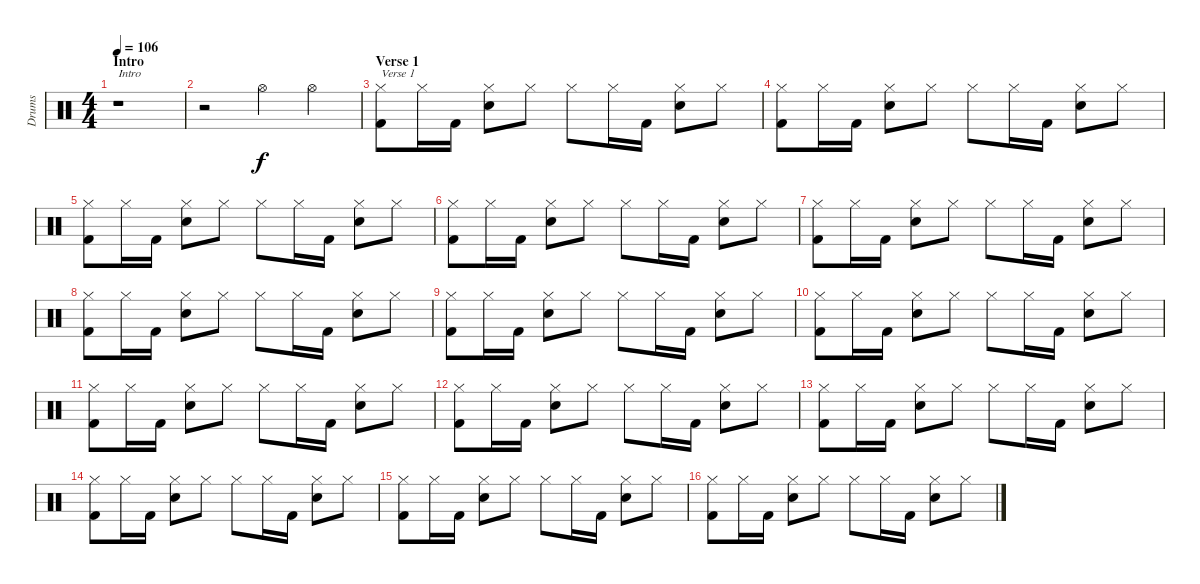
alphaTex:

\track ("Drums" "Drums") {instrument percussion}
\staff {score}
\articulation defaults
\ts (4 4)
\section ("" "Intro")
\tempo 106
\clef neutral
\ks c
r.1{txt "Intro" dy f} |
r.2 "Hi-Hat (open)".4 "Hi-Hat (open)".4 |
\section ("" "Verse 1")
("Hi-Hat (closed)" "Kick (hit) 2").8{txt "Verse 1"} "Hi-Hat (closed)".16 "Kick (hit) 2".16 ("Hi-Hat (closed)" "Electric Snare (hit)").8 "Hi-Hat (closed)".8 "Hi-Hat (closed)".8 "Hi-Hat (closed)".16 "Kick (hit) 2".16 ("Hi-Hat (closed)" "Electric Snare (hit)").8 "Hi-Hat (closed)".8 |
("Hi-Hat (closed)" "Kick (hit) 2").8 "Hi-Hat (closed)".16 "Kick (hit) 2".16 ("Hi-Hat (closed)" "Electric Snare (hit)").8 "Hi-Hat (closed)".8 "Hi-Hat (closed)".8 "Hi-Hat (closed)".16 "Kick (hit) 2".16 ("Hi-Hat (closed)" "Electric Snare (hit)").8 "Hi-Hat (closed)".8 |
("Hi-Hat (closed)" "Kick (hit) 2").8 "Hi-Hat (closed)".16 "Kick (hit) 2".16 ("Hi-Hat (closed)" "Electric Snare (hit)").8 "Hi-Hat (closed)".8 "Hi-Hat (closed)".8 "Hi-Hat (closed)".16 "Kick (hit) 2".16 ("Hi-Hat (closed)" "Electric Snare (hit)").8 "Hi-Hat (closed)".8 |
("Hi-Hat (closed)" "Kick (hit) 2").8 "Hi-Hat (closed)".16 "Kick (hit) 2".16 ("Hi-Hat (closed)" "Electric Snare (hit)").8 "Hi-Hat (closed)".8 "Hi-Hat (closed)".8 "Hi-Hat (closed)".16 "Kick (hit) 2".16 ("Hi-Hat (closed)" "Electric Snare (hit)").8 "Hi-Hat (closed)".8 |
("Hi-Hat (closed)" "Kick (hit) 2").8 "Hi-Hat (closed)".16 "Kick (hit) 2".16 ("Hi-Hat (closed)" "Electric Snare (hit)").8 "Hi-Hat (closed)".8 "Hi-Hat (closed)".8 "Hi-Hat (closed)".16 "Kick (hit) 2".16 ("Hi-Hat (closed)" "Electric Snare (hit)").8 "Hi-Hat (closed)".8 |
("Hi-Hat (closed)" "Kick (hit) 2").8 "Hi-Hat (closed)".16 "Kick (hit) 2".16 ("Hi-Hat (closed)" "Electric Snare (hit)").8 "Hi-Hat (closed)".8 "Hi-Hat (closed)".8 "Hi-Hat (closed)".16 "Kick (hit) 2".16 ("Hi-Hat (closed)" "Electric Snare (hit)").8 "Hi-Hat (closed)".8 |
("Hi-Hat (closed)" "Kick (hit) 2").8 "Hi-Hat (closed)".16 "Kick (hit) 2".16 ("Hi-Hat (closed)" "Electric Snare (hit)").8 "Hi-Hat (closed)".8 "Hi-Hat (closed)".8 "Hi-Hat (closed)".16 "Kick (hit) 2".16 ("Hi-Hat (closed)" "Electric Snare (hit)").8 "Hi-Hat (closed)".8 |
("Hi-Hat (closed)" "Kick (hit) 2").8 "Hi-Hat (closed)".16 "Kick (hit) 2".16 ("Hi-Hat (closed)" "Electric Snare (hit)").8 "Hi-Hat (closed)".8 "Hi-Hat (closed)".8 "Hi-Hat (closed)".16 "Kick (hit) 2".16 ("Hi-Hat (closed)" "Electric Snare (hit)").8 "Hi-Hat (closed)".8 |
("Hi-Hat (closed)" "Kick (hit) 2").8 "Hi-Hat (closed)".16 "Kick (hit) 2".16 ("Hi-Hat (closed)" "Electric Snare (hit)").8 "Hi-Hat (closed)".8 "Hi-Hat (closed)".8 "Hi-Hat (closed)".16 "Kick (hit) 2".16 ("Hi-Hat (closed)" "Electric Snare (hit)").8 "Hi-Hat (closed)".8 |
("Hi-Hat (closed)" "Kick (hit) 2").8 "Hi-Hat (closed)".16 "Kick (hit) 2".16 ("Hi-Hat (closed)" "Electric Snare (hit)").8 "Hi-Hat (closed)".8 "Hi-Hat (closed)".8 "Hi-Hat (closed)".16 "Kick (hit) 2".16 ("Hi-Hat (closed)" "Electric Snare (hit)").8 "Hi-Hat (closed)".8 |
("Hi-Hat (closed)" "Kick (hit) 2").8 "Hi-Hat (closed)".16 "Kick (hit) 2".16 ("Hi-Hat (closed)" "Electric Snare (hit)").8 "Hi-Hat (closed)".8 "Hi-Hat (closed)".8 "Hi-Hat (closed)".16 "Kick (hit) 2".16 ("Hi-Hat (closed)" "Electric Snare (hit)").8 "Hi-Hat (closed)".8 |
("Hi-Hat (closed)" "Kick (hit) 2").8 "Hi-Hat (closed)".16 "Kick (hit) 2".16 ("Hi-Hat (closed)" "Electric Snare (hit)").8 "Hi-Hat (closed)".8 "Hi-Hat (closed)".8 "Hi-Hat (closed)".16 "Kick (hit) 2".16 ("Hi-Hat (closed)" "Electric Snare (hit)").8 "Hi-Hat (closed)".8 |
("Hi-Hat (closed)" "Kick (hit) 2").8 "Hi-Hat (closed)".16 "Kick (hit) 2".16 ("Hi-Hat (closed)" "Electric Snare (hit)").8 "Hi-Hat (closed)".8 "Hi-Hat (closed)".8 "Hi-Hat (closed)".16 "Kick (hit) 2".16 ("Hi-Hat (closed)" "Electric Snare (hit)").8 "Hi-Hat (closed)".8 |
("Hi-Hat (closed)" "Kick (hit) 2").8 "Hi-Hat (closed)".16 "Kick (hit) 2".16 ("Hi-Hat (closed)" "Electric Snare (hit)").8 "Hi-Hat (closed)".8 "Hi-Hat (closed)".8 "Hi-Hat (closed)".16 "Kick (hit) 2".16 ("Hi-Hat (closed)" "Electric Snare (hit)").8 "Hi-Hat (closed)".8
